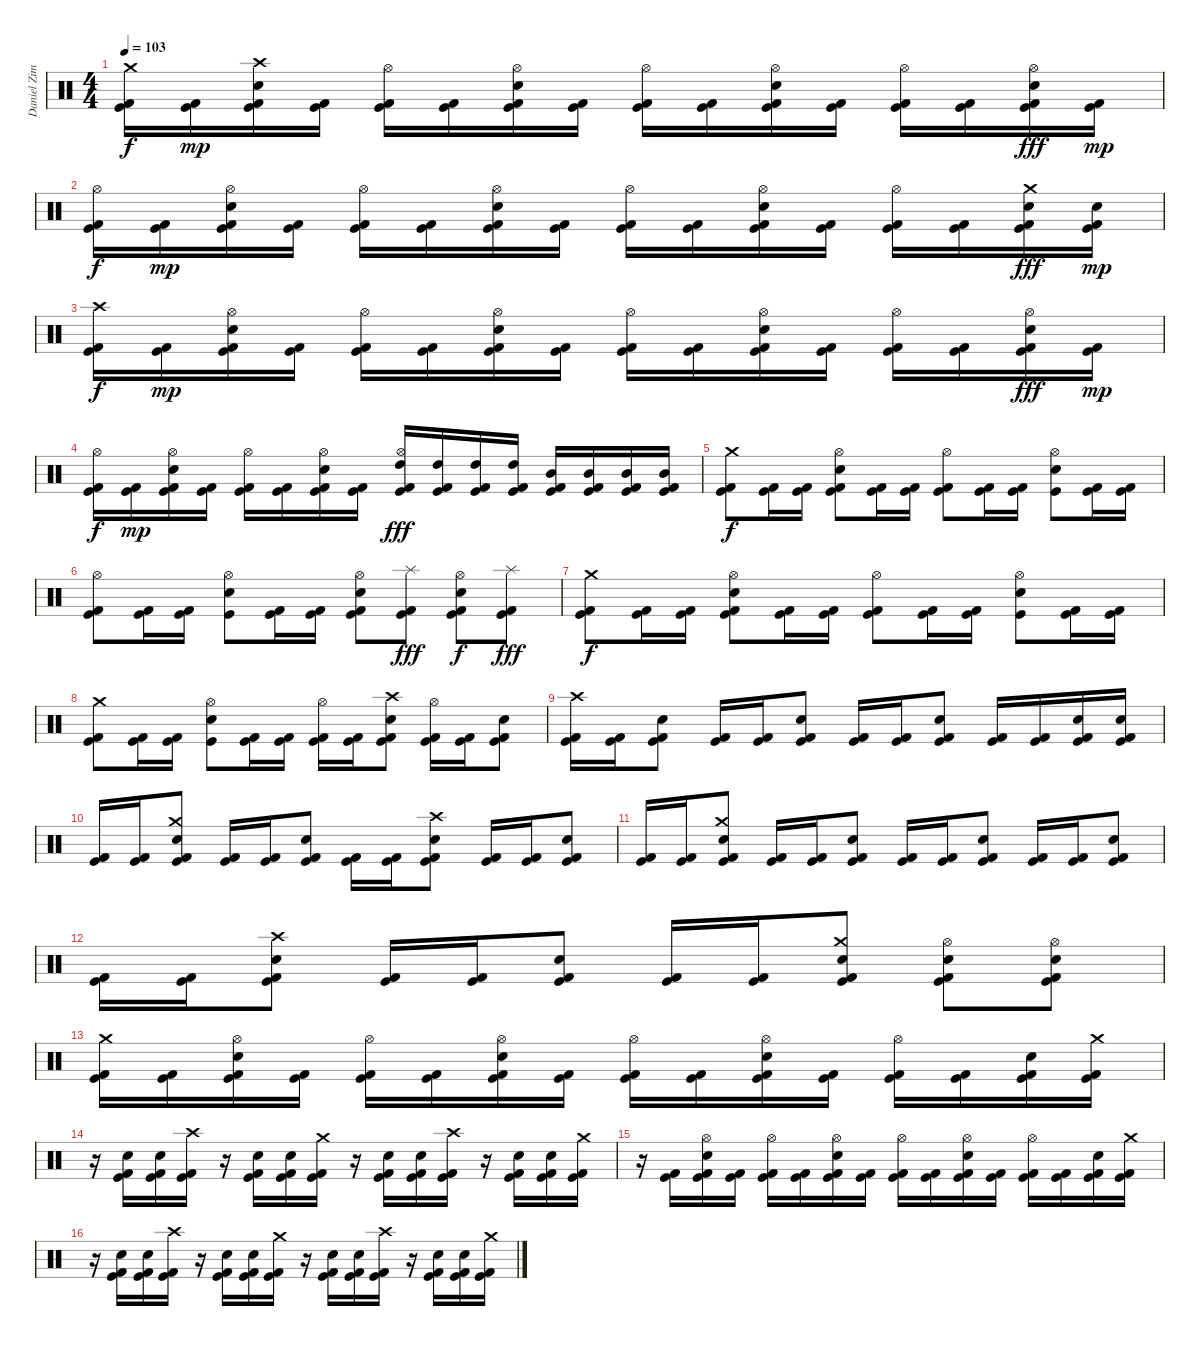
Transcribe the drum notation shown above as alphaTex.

\track ("Daniel Zimmermann - Drums" "Daniel Zim") {instrument percussion}
\staff {score}
\articulation defaults
\ts (4 4)
\tempo 103
\clef neutral
\ks c
("Kick (hit)" "Kick (hit) 2" "Crash medium (hit)").16{dy f} ("Kick (hit)" "Kick (hit) 2").16{dy mp} ("Kick (hit)" "Kick (hit) 2" "Electric Snare (hit)" "Crash high (hit)").16 ("Kick (hit)" "Kick (hit) 2").16 ("Kick (hit)" "Kick (hit) 2" "Hi-Hat (open)").16 ("Kick (hit)" "Kick (hit) 2").16 ("Kick (hit)" "Kick (hit) 2" "Electric Snare (hit)" "Hi-Hat (open)").16 ("Kick (hit)" "Kick (hit) 2").16 ("Kick (hit)" "Kick (hit) 2" "Hi-Hat (open)").16 ("Kick (hit)" "Kick (hit) 2").16 ("Kick (hit)" "Kick (hit) 2" "Electric Snare (hit)" "Hi-Hat (open)").16 ("Kick (hit)" "Kick (hit) 2").16 ("Kick (hit)" "Kick (hit) 2" "Hi-Hat (open)").16 ("Kick (hit)" "Kick (hit) 2").16 ("Kick (hit)" "Kick (hit) 2" "Electric Snare (hit)" "Hi-Hat (open)").16{dy fff} ("Kick (hit)" "Kick (hit) 2").16{dy mp} |
("Kick (hit)" "Kick (hit) 2" "Hi-Hat (open)").16{dy f} ("Kick (hit)" "Kick (hit) 2").16{dy mp} ("Kick (hit)" "Kick (hit) 2" "Electric Snare (hit)" "Hi-Hat (open)").16 ("Kick (hit)" "Kick (hit) 2").16 ("Kick (hit)" "Kick (hit) 2" "Hi-Hat (open)").16 ("Kick (hit)" "Kick (hit) 2").16 ("Kick (hit)" "Kick (hit) 2" "Electric Snare (hit)" "Hi-Hat (open)").16 ("Kick (hit)" "Kick (hit) 2").16 ("Kick (hit)" "Kick (hit) 2" "Hi-Hat (open)").16 ("Kick (hit)" "Kick (hit) 2").16 ("Kick (hit)" "Kick (hit) 2" "Electric Snare (hit)" "Hi-Hat (open)").16 ("Kick (hit)" "Kick (hit) 2").16 ("Kick (hit)" "Kick (hit) 2" "Hi-Hat (open)").16 ("Kick (hit)" "Kick (hit) 2").16 ("Kick (hit)" "Kick (hit) 2" "Electric Snare (hit)" "Crash medium (hit)").16{dy fff} ("Kick (hit)" "Kick (hit) 2" "Electric Snare (hit)").16{dy mp} |
("Kick (hit)" "Kick (hit) 2" "Crash high (hit)").16{dy f} ("Kick (hit)" "Kick (hit) 2").16{dy mp} ("Kick (hit)" "Kick (hit) 2" "Electric Snare (hit)" "Hi-Hat (open)").16 ("Kick (hit)" "Kick (hit) 2").16 ("Kick (hit)" "Kick (hit) 2" "Hi-Hat (open)").16 ("Kick (hit)" "Kick (hit) 2").16 ("Kick (hit)" "Kick (hit) 2" "Electric Snare (hit)" "Hi-Hat (open)").16 ("Kick (hit)" "Kick (hit) 2").16 ("Kick (hit)" "Kick (hit) 2" "Hi-Hat (open)").16 ("Kick (hit)" "Kick (hit) 2").16 ("Kick (hit)" "Kick (hit) 2" "Electric Snare (hit)" "Hi-Hat (open)").16 ("Kick (hit)" "Kick (hit) 2").16 ("Kick (hit)" "Kick (hit) 2" "Hi-Hat (open)").16 ("Kick (hit)" "Kick (hit) 2").16 ("Kick (hit)" "Kick (hit) 2" "Electric Snare (hit)" "Hi-Hat (open)").16{dy fff} ("Kick (hit)" "Kick (hit) 2").16{dy mp} |
("Kick (hit)" "Kick (hit) 2" "Hi-Hat (open)").16{dy f} ("Kick (hit)" "Kick (hit) 2").16{dy mp} ("Kick (hit)" "Kick (hit) 2" "Electric Snare (hit)" "Hi-Hat (open)").16 ("Kick (hit)" "Kick (hit) 2").16 ("Kick (hit)" "Kick (hit) 2" "Hi-Hat (open)").16 ("Kick (hit)" "Kick (hit) 2").16 ("Kick (hit)" "Kick (hit) 2" "Electric Snare (hit)" "Hi-Hat (open)").16 ("Kick (hit)" "Kick (hit) 2").16 ("Kick (hit)" "Kick (hit) 2" "High Tom (hit)" "Hi-Hat (open)").16{dy fff} ("Kick (hit)" "Kick (hit) 2" "High Tom (hit)").16 ("Kick (hit)" "Kick (hit) 2" "High Tom (hit)").16 ("Kick (hit)" "Kick (hit) 2" "High Tom (hit)").16 ("Kick (hit)" "Kick (hit) 2" "Mid Tom (hit)").16 ("Kick (hit)" "Kick (hit) 2" "Mid Tom (hit)").16 ("Kick (hit)" "Kick (hit) 2" "Mid Tom (hit)").16 ("Kick (hit)" "Kick (hit) 2" "Mid Tom (hit)").16 |
("Kick (hit)" "Kick (hit) 2" "Crash medium (hit)").8{dy f} ("Kick (hit)" "Kick (hit) 2").16 ("Kick (hit)" "Kick (hit) 2").16 ("Kick (hit)" "Kick (hit) 2" "Electric Snare (hit)" "Hi-Hat (open)").8 ("Kick (hit)" "Kick (hit) 2").16 ("Kick (hit)" "Kick (hit) 2").16 ("Kick (hit)" "Kick (hit) 2" "Hi-Hat (open)").8 ("Kick (hit)" "Kick (hit) 2").16 ("Kick (hit)" "Kick (hit) 2").16 ("Kick (hit)" "Electric Snare (hit)" "Hi-Hat (open)").8 ("Kick (hit)" "Kick (hit) 2").16 ("Kick (hit)" "Kick (hit) 2").16 |
("Kick (hit)" "Kick (hit) 2" "Hi-Hat (open)").8 ("Kick (hit)" "Kick (hit) 2").16 ("Kick (hit)" "Kick (hit) 2").16 ("Kick (hit)" "Electric Snare (hit)" "Hi-Hat (open)").8 ("Kick (hit)" "Kick (hit) 2").16 ("Kick (hit)" "Kick (hit) 2").16 ("Kick (hit)" "Kick (hit) 2" "Electric Snare (hit)" "Hi-Hat (open)").8 ("Kick (hit)" "Kick (hit) 2" "Splash (hit)").8{dy fff} ("Kick (hit)" "Kick (hit) 2" "Electric Snare (hit)" "Hi-Hat (open)").8{dy f} ("Kick (hit)" "Kick (hit) 2" "Splash (hit)").8{dy fff} |
("Kick (hit)" "Kick (hit) 2" "Crash medium (hit)").8{dy f} ("Kick (hit)" "Kick (hit) 2").16 ("Kick (hit)" "Kick (hit) 2").16 ("Kick (hit)" "Kick (hit) 2" "Electric Snare (hit)" "Hi-Hat (open)").8 ("Kick (hit)" "Kick (hit) 2").16 ("Kick (hit)" "Kick (hit) 2").16 ("Kick (hit)" "Kick (hit) 2" "Hi-Hat (open)").8 ("Kick (hit)" "Kick (hit) 2").16 ("Kick (hit)" "Kick (hit) 2").16 ("Kick (hit)" "Electric Snare (hit)" "Hi-Hat (open)").8 ("Kick (hit)" "Kick (hit) 2").16 ("Kick (hit)" "Kick (hit) 2").16 |
("Kick (hit)" "Kick (hit) 2" "Crash medium (hit)").8 ("Kick (hit)" "Kick (hit) 2").16 ("Kick (hit)" "Kick (hit) 2").16 ("Kick (hit)" "Electric Snare (hit)" "Hi-Hat (open)").8 ("Kick (hit)" "Kick (hit) 2").16 ("Kick (hit)" "Kick (hit) 2").16 ("Kick (hit)" "Kick (hit) 2" "Hi-Hat (open)").16 ("Kick (hit)" "Kick (hit) 2").16 ("Kick (hit)" "Kick (hit) 2" "Electric Snare (hit)" "Crash high (hit)").8 ("Kick (hit)" "Kick (hit) 2" "Hi-Hat (open)").16 ("Kick (hit)" "Kick (hit) 2").16 ("Kick (hit)" "Kick (hit) 2" "Electric Snare (hit)").8 |
("Kick (hit)" "Kick (hit) 2" "Crash high (hit)").16 ("Kick (hit)" "Kick (hit) 2").16 ("Kick (hit)" "Kick (hit) 2" "Electric Snare (hit)").8 ("Kick (hit)" "Kick (hit) 2").16 ("Kick (hit)" "Kick (hit) 2").16 ("Kick (hit)" "Kick (hit) 2" "Electric Snare (hit)").8 ("Kick (hit)" "Kick (hit) 2").16 ("Kick (hit)" "Kick (hit) 2").16 ("Kick (hit)" "Kick (hit) 2" "Electric Snare (hit)").8 ("Kick (hit)" "Kick (hit) 2").16 ("Kick (hit)" "Kick (hit) 2").16 ("Kick (hit)" "Kick (hit) 2" "Electric Snare (hit)").16 ("Kick (hit)" "Kick (hit) 2" "Electric Snare (hit)").16 |
("Kick (hit)" "Kick (hit) 2").16 ("Kick (hit)" "Kick (hit) 2").16 ("Kick (hit)" "Kick (hit) 2" "Electric Snare (hit)" "Crash medium (hit)").8 ("Kick (hit)" "Kick (hit) 2").16 ("Kick (hit)" "Kick (hit) 2").16 ("Kick (hit)" "Kick (hit) 2" "Electric Snare (hit)").8 ("Kick (hit)" "Kick (hit) 2").16 ("Kick (hit)" "Kick (hit) 2").16 ("Kick (hit)" "Kick (hit) 2" "Electric Snare (hit)" "Crash high (hit)").8 ("Kick (hit)" "Kick (hit) 2").16 ("Kick (hit)" "Kick (hit) 2").16 ("Kick (hit)" "Kick (hit) 2" "Electric Snare (hit)").8 |
("Kick (hit)" "Kick (hit) 2").16 ("Kick (hit)" "Kick (hit) 2").16 ("Kick (hit)" "Kick (hit) 2" "Electric Snare (hit)" "Crash medium (hit)").8 ("Kick (hit)" "Kick (hit) 2").16 ("Kick (hit)" "Kick (hit) 2").16 ("Kick (hit)" "Kick (hit) 2" "Electric Snare (hit)").8 ("Kick (hit)" "Kick (hit) 2").16 ("Kick (hit)" "Kick (hit) 2").16 ("Kick (hit)" "Kick (hit) 2" "Electric Snare (hit)").8 ("Kick (hit)" "Kick (hit) 2").16 ("Kick (hit)" "Kick (hit) 2").16 ("Kick (hit)" "Kick (hit) 2" "Electric Snare (hit)").8 |
("Kick (hit)" "Kick (hit) 2").16 ("Kick (hit)" "Kick (hit) 2").16 ("Kick (hit)" "Kick (hit) 2" "Electric Snare (hit)" "Crash high (hit)").8 ("Kick (hit)" "Kick (hit) 2").16 ("Kick (hit)" "Kick (hit) 2").16 ("Kick (hit)" "Kick (hit) 2" "Electric Snare (hit)").8 ("Kick (hit)" "Kick (hit) 2").16 ("Kick (hit)" "Kick (hit) 2").16 ("Kick (hit)" "Kick (hit) 2" "Electric Snare (hit)" "Crash medium (hit)").8 ("Kick (hit)" "Kick (hit) 2" "Electric Snare (hit)" "Hi-Hat (open)").8 ("Kick (hit)" "Kick (hit) 2" "Electric Snare (hit)" "Hi-Hat (open)").8 |
("Kick (hit)" "Kick (hit) 2" "Crash medium (hit)").16 ("Kick (hit)" "Kick (hit) 2").16 ("Kick (hit)" "Kick (hit) 2" "Electric Snare (hit)" "Hi-Hat (open)").16 ("Kick (hit)" "Kick (hit) 2").16 ("Kick (hit)" "Kick (hit) 2" "Hi-Hat (open)").16 ("Kick (hit)" "Kick (hit) 2").16 ("Kick (hit)" "Kick (hit) 2" "Electric Snare (hit)" "Hi-Hat (open)").16 ("Kick (hit)" "Kick (hit) 2").16 ("Kick (hit)" "Kick (hit) 2" "Hi-Hat (open)").16 ("Kick (hit)" "Kick (hit) 2").16 ("Kick (hit)" "Kick (hit) 2" "Electric Snare (hit)" "Hi-Hat (open)").16 ("Kick (hit)" "Kick (hit) 2").16 ("Kick (hit)" "Kick (hit) 2" "Hi-Hat (open)").16 ("Kick (hit)" "Kick (hit) 2").16 ("Kick (hit)" "Kick (hit) 2" "Electric Snare (hit)").16 ("Kick (hit)" "Kick (hit) 2" "Crash medium (hit)").16 |
r.16 ("Kick (hit)" "Kick (hit) 2" "Electric Snare (hit)").16 ("Kick (hit)" "Kick (hit) 2" "Electric Snare (hit)").16 ("Kick (hit)" "Kick (hit) 2" "Crash high (hit)").16 r.16 ("Kick (hit)" "Kick (hit) 2" "Electric Snare (hit)").16 ("Kick (hit)" "Kick (hit) 2" "Electric Snare (hit)").16 ("Kick (hit)" "Kick (hit) 2" "Crash medium (hit)").16 r.16 ("Kick (hit)" "Kick (hit) 2" "Electric Snare (hit)").16 ("Kick (hit)" "Kick (hit) 2" "Electric Snare (hit)").16 ("Kick (hit)" "Kick (hit) 2" "Crash high (hit)").16 r.16 ("Kick (hit)" "Kick (hit) 2" "Electric Snare (hit)").16 ("Kick (hit)" "Kick (hit) 2" "Electric Snare (hit)").16 ("Kick (hit)" "Kick (hit) 2" "Crash medium (hit)").16 |
r.16 ("Kick (hit)" "Kick (hit) 2").16 ("Kick (hit)" "Kick (hit) 2" "Electric Snare (hit)" "Hi-Hat (open)").16 ("Kick (hit)" "Kick (hit) 2").16 ("Kick (hit)" "Kick (hit) 2" "Hi-Hat (open)").16 ("Kick (hit)" "Kick (hit) 2").16 ("Kick (hit)" "Kick (hit) 2" "Electric Snare (hit)" "Hi-Hat (open)").16 ("Kick (hit)" "Kick (hit) 2").16 ("Kick (hit)" "Kick (hit) 2" "Hi-Hat (open)").16 ("Kick (hit)" "Kick (hit) 2").16 ("Kick (hit)" "Kick (hit) 2" "Electric Snare (hit)" "Hi-Hat (open)").16 ("Kick (hit)" "Kick (hit) 2").16 ("Kick (hit)" "Kick (hit) 2" "Hi-Hat (open)").16 ("Kick (hit)" "Kick (hit) 2").16 ("Kick (hit)" "Kick (hit) 2" "Electric Snare (hit)").16 ("Kick (hit)" "Kick (hit) 2" "Crash medium (hit)").16 |
r.16 ("Kick (hit)" "Kick (hit) 2" "Electric Snare (hit)").16 ("Kick (hit)" "Kick (hit) 2" "Electric Snare (hit)").16 ("Kick (hit)" "Kick (hit) 2" "Crash high (hit)").16 r.16 ("Kick (hit)" "Kick (hit) 2" "Electric Snare (hit)").16 ("Kick (hit)" "Kick (hit) 2" "Electric Snare (hit)").16 ("Kick (hit)" "Kick (hit) 2" "Crash medium (hit)").16 r.16 ("Kick (hit)" "Kick (hit) 2" "Electric Snare (hit)").16 ("Kick (hit)" "Kick (hit) 2" "Electric Snare (hit)").16 ("Kick (hit)" "Kick (hit) 2" "Crash high (hit)").16 r.16 ("Kick (hit)" "Kick (hit) 2" "Electric Snare (hit)").16 ("Kick (hit)" "Kick (hit) 2" "Electric Snare (hit)").16 ("Kick (hit)" "Kick (hit) 2" "Crash medium (hit)").16
